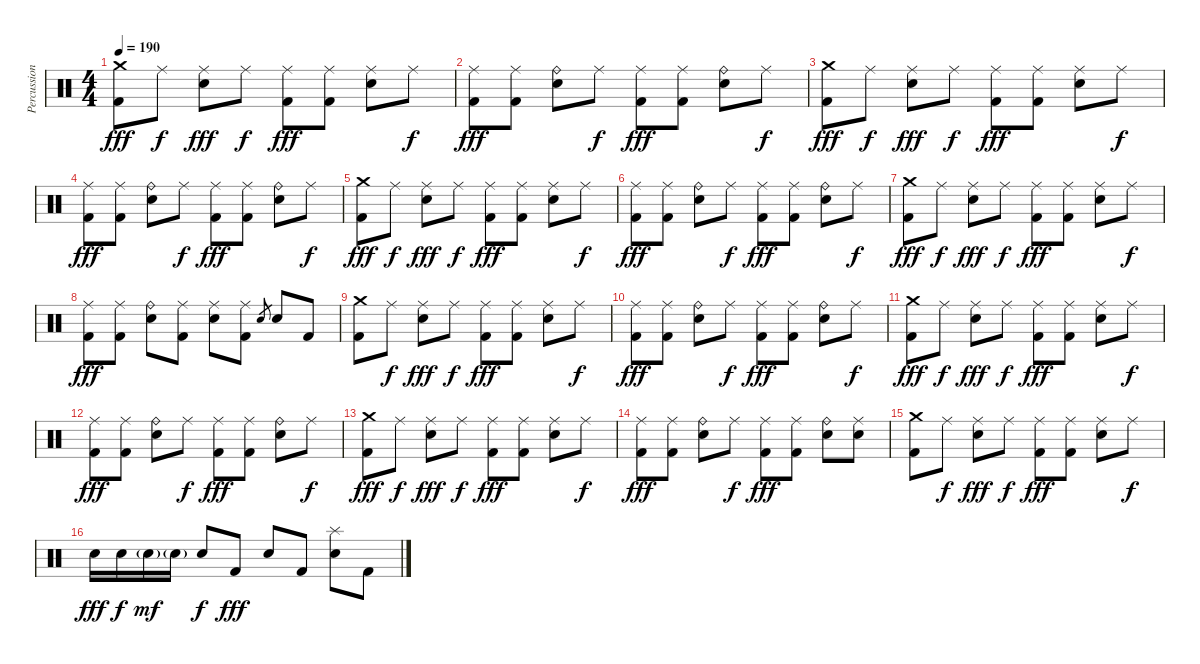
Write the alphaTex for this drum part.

\track ("Percussions" "Percussion") {instrument percussion}
\staff {score}
\articulation defaults
\ts (4 4)
\tempo 190
\clef neutral
\ks c
("Crash medium (hit)" "Kick (hit) 2").8{dy fff} "Ride (middle)".8{dy f} ("Ride (middle)" "Electric Snare (hit)").8{dy fff} "Ride (middle)".8{dy f} ("Ride (middle)" "Kick (hit) 2").8{dy fff} ("Ride (middle)" "Kick (hit) 2").8 ("Ride (middle)" "Electric Snare (hit)").8 "Ride (middle)".8{dy f} |
("Ride (middle)" "Kick (hit) 2").8{dy fff} ("Ride (middle)" "Kick (hit) 2").8 ("Ride (bell)" "Electric Snare (hit)").8 "Ride (middle)".8{dy f} ("Ride (middle)" "Kick (hit) 2").8{dy fff} ("Ride (middle)" "Kick (hit) 2").8 ("Ride (bell)" "Electric Snare (hit)").8 "Ride (middle)".8{dy f} |
("Crash medium (hit)" "Kick (hit) 2").8{dy fff} "Ride (middle)".8{dy f} ("Ride (middle)" "Electric Snare (hit)").8{dy fff} "Ride (middle)".8{dy f} ("Ride (middle)" "Kick (hit) 2").8{dy fff} ("Ride (middle)" "Kick (hit) 2").8 ("Ride (middle)" "Electric Snare (hit)").8 "Ride (middle)".8{dy f} |
("Ride (middle)" "Kick (hit) 2").8{dy fff} ("Ride (middle)" "Kick (hit) 2").8 ("Ride (bell)" "Electric Snare (hit)").8 "Ride (middle)".8{dy f} ("Ride (middle)" "Kick (hit) 2").8{dy fff} ("Ride (middle)" "Kick (hit) 2").8 ("Ride (bell)" "Electric Snare (hit)").8 "Ride (middle)".8{dy f} |
("Crash medium (hit)" "Kick (hit) 2").8{dy fff} "Ride (middle)".8{dy f} ("Ride (middle)" "Electric Snare (hit)").8{dy fff} "Ride (middle)".8{dy f} ("Ride (middle)" "Kick (hit) 2").8{dy fff} ("Ride (middle)" "Kick (hit) 2").8 ("Ride (middle)" "Electric Snare (hit)").8 "Ride (middle)".8{dy f} |
("Ride (middle)" "Kick (hit) 2").8{dy fff} ("Ride (middle)" "Kick (hit) 2").8 ("Ride (bell)" "Electric Snare (hit)").8 "Ride (middle)".8{dy f} ("Ride (middle)" "Kick (hit) 2").8{dy fff} ("Ride (middle)" "Kick (hit) 2").8 ("Ride (bell)" "Electric Snare (hit)").8 "Ride (middle)".8{dy f} |
("Crash medium (hit)" "Kick (hit) 2").8{dy fff} "Ride (middle)".8{dy f} ("Ride (middle)" "Electric Snare (hit)").8{dy fff} "Ride (middle)".8{dy f} ("Ride (middle)" "Kick (hit) 2").8{dy fff} ("Ride (middle)" "Kick (hit) 2").8 ("Ride (middle)" "Electric Snare (hit)").8 "Ride (middle)".8{dy f} |
("Ride (middle)" "Kick (hit) 2").8{dy fff} ("Ride (middle)" "Kick (hit) 2").8 ("Ride (bell)" "Electric Snare (hit)").8 ("Ride (middle)" "Kick (hit) 2").8 ("Ride (middle)" "Electric Snare (hit)").8 ("Ride (middle)" "Kick (hit) 2").8 "Electric Snare (hit)".8{gr} "Electric Snare (hit)".8 "Kick (hit) 2".8 |
("Crash medium (hit)" "Kick (hit) 2").8 "Ride (middle)".8{dy f} ("Ride (middle)" "Electric Snare (hit)").8{dy fff} "Ride (middle)".8{dy f} ("Ride (middle)" "Kick (hit) 2").8{dy fff} ("Ride (middle)" "Kick (hit) 2").8 ("Ride (middle)" "Electric Snare (hit)").8 "Ride (middle)".8{dy f} |
("Ride (middle)" "Kick (hit) 2").8{dy fff} ("Ride (middle)" "Kick (hit) 2").8 ("Ride (bell)" "Electric Snare (hit)").8 "Ride (middle)".8{dy f} ("Ride (middle)" "Kick (hit) 2").8{dy fff} ("Ride (middle)" "Kick (hit) 2").8 ("Ride (bell)" "Electric Snare (hit)").8 "Ride (middle)".8{dy f} |
("Crash medium (hit)" "Kick (hit) 2").8{dy fff} "Ride (middle)".8{dy f} ("Ride (middle)" "Electric Snare (hit)").8{dy fff} "Ride (middle)".8{dy f} ("Ride (middle)" "Kick (hit) 2").8{dy fff} ("Ride (middle)" "Kick (hit) 2").8 ("Ride (middle)" "Electric Snare (hit)").8 "Ride (middle)".8{dy f} |
("Ride (middle)" "Kick (hit) 2").8{dy fff} ("Ride (middle)" "Kick (hit) 2").8 ("Ride (bell)" "Electric Snare (hit)").8 "Ride (middle)".8{dy f} ("Ride (middle)" "Kick (hit) 2").8{dy fff} ("Ride (middle)" "Kick (hit) 2").8 ("Ride (bell)" "Electric Snare (hit)").8 "Ride (middle)".8{dy f} |
("Crash medium (hit)" "Kick (hit) 2").8{dy fff} "Ride (middle)".8{dy f} ("Ride (middle)" "Electric Snare (hit)").8{dy fff} "Ride (middle)".8{dy f} ("Ride (middle)" "Kick (hit) 2").8{dy fff} ("Ride (middle)" "Kick (hit) 2").8 ("Ride (middle)" "Electric Snare (hit)").8 "Ride (middle)".8{dy f} |
("Ride (middle)" "Kick (hit) 2").8{dy fff} ("Ride (middle)" "Kick (hit) 2").8 ("Ride (bell)" "Electric Snare (hit)").8 "Ride (middle)".8{dy f} ("Ride (middle)" "Kick (hit) 2").8{dy fff} ("Ride (middle)" "Kick (hit) 2").8 ("Ride (bell)" "Electric Snare (hit)").8 ("Ride (middle)" "Electric Snare (hit)").8 |
("Crash medium (hit)" "Kick (hit) 2").8 "Ride (middle)".8{dy f} ("Ride (middle)" "Electric Snare (hit)").8{dy fff} "Ride (middle)".8{dy f} ("Ride (middle)" "Kick (hit) 2").8{dy fff} ("Ride (middle)" "Kick (hit) 2").8 ("Ride (middle)" "Electric Snare (hit)").8 "Ride (middle)".8{dy f} |
"Electric Snare (hit)".16{dy fff} "Electric Snare (hit)".16{dy f} "Electric Snare (hit)"{g}.16{dy mf} "Electric Snare (hit)"{g}.16 "Electric Snare (hit)".8{dy f} "Kick (hit) 2".8{dy fff} "Electric Snare (hit)".8 "Kick (hit) 2".8 ("Splash (hit)" "Electric Snare (hit)").8 "Kick (hit) 2".8
